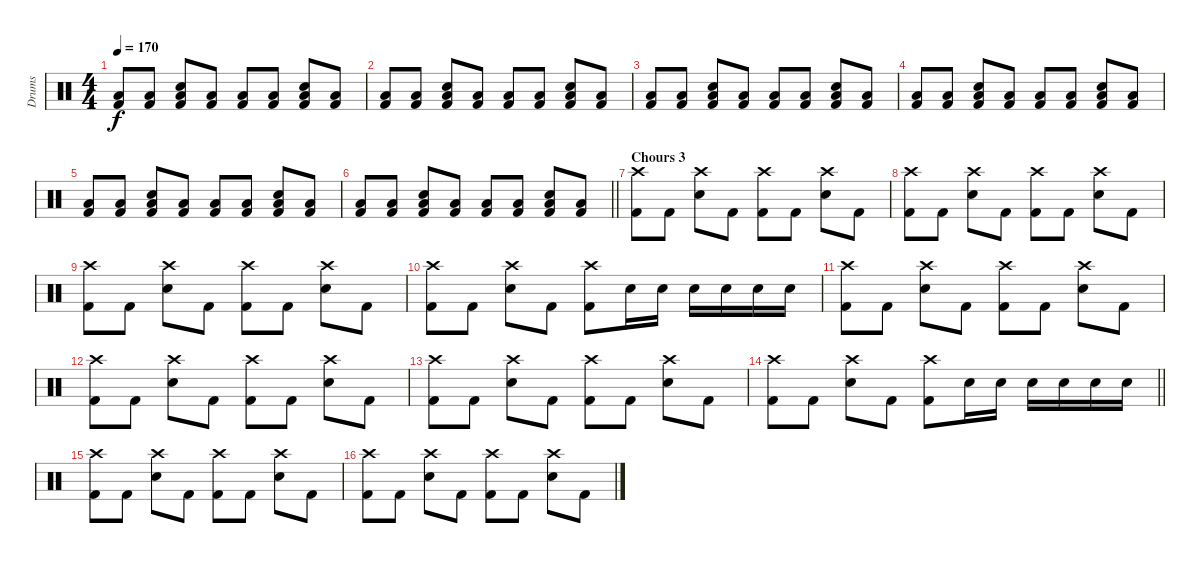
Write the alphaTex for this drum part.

\track ("Drums" "Drums") {instrument percussion}
\staff {score}
\articulation defaults
\ts (4 4)
\tempo 170
\clef neutral
\ks c
("Low Floor Tom (hit)" "Kick (hit) 2").8{dy f} ("Low Floor Tom (hit)" "Kick (hit) 2").8 ("Low Floor Tom (hit)" "Snare (hit) 2" "Kick (hit) 2").8 ("Low Floor Tom (hit)" "Kick (hit) 2").8 ("Low Floor Tom (hit)" "Kick (hit) 2").8 ("Low Floor Tom (hit)" "Kick (hit) 2").8 ("Low Floor Tom (hit)" "Snare (hit) 2" "Kick (hit) 2").8 ("Low Floor Tom (hit)" "Kick (hit) 2").8 |
("Low Floor Tom (hit)" "Kick (hit) 2").8 ("Low Floor Tom (hit)" "Kick (hit) 2").8 ("Low Floor Tom (hit)" "Snare (hit) 2" "Kick (hit) 2").8 ("Low Floor Tom (hit)" "Kick (hit) 2").8 ("Low Floor Tom (hit)" "Kick (hit) 2").8 ("Low Floor Tom (hit)" "Kick (hit) 2").8 ("Low Floor Tom (hit)" "Snare (hit) 2" "Kick (hit) 2").8 ("Low Floor Tom (hit)" "Kick (hit) 2").8 |
("Low Floor Tom (hit)" "Kick (hit) 2").8 ("Low Floor Tom (hit)" "Kick (hit) 2").8 ("Low Floor Tom (hit)" "Snare (hit) 2" "Kick (hit) 2").8 ("Low Floor Tom (hit)" "Kick (hit) 2").8 ("Low Floor Tom (hit)" "Kick (hit) 2").8 ("Low Floor Tom (hit)" "Kick (hit) 2").8 ("Low Floor Tom (hit)" "Snare (hit) 2" "Kick (hit) 2").8 ("Low Floor Tom (hit)" "Kick (hit) 2").8 |
("Low Floor Tom (hit)" "Kick (hit) 2").8 ("Low Floor Tom (hit)" "Kick (hit) 2").8 ("Low Floor Tom (hit)" "Snare (hit) 2" "Kick (hit) 2").8 ("Low Floor Tom (hit)" "Kick (hit) 2").8 ("Low Floor Tom (hit)" "Kick (hit) 2").8 ("Low Floor Tom (hit)" "Kick (hit) 2").8 ("Low Floor Tom (hit)" "Snare (hit) 2" "Kick (hit) 2").8 ("Low Floor Tom (hit)" "Kick (hit) 2").8 |
("Low Floor Tom (hit)" "Kick (hit) 2").8 ("Low Floor Tom (hit)" "Kick (hit) 2").8 ("Low Floor Tom (hit)" "Snare (hit) 2" "Kick (hit) 2").8 ("Low Floor Tom (hit)" "Kick (hit) 2").8 ("Low Floor Tom (hit)" "Kick (hit) 2").8 ("Low Floor Tom (hit)" "Kick (hit) 2").8 ("Low Floor Tom (hit)" "Snare (hit) 2" "Kick (hit) 2").8 ("Low Floor Tom (hit)" "Kick (hit) 2").8 |
\barLineRight lightlight
("Low Floor Tom (hit)" "Kick (hit) 2").8 ("Low Floor Tom (hit)" "Kick (hit) 2").8 ("Low Floor Tom (hit)" "Snare (hit) 2" "Kick (hit) 2").8 ("Low Floor Tom (hit)" "Kick (hit) 2").8 ("Low Floor Tom (hit)" "Kick (hit) 2").8 ("Low Floor Tom (hit)" "Kick (hit) 2").8 ("Low Floor Tom (hit)" "Snare (hit) 2" "Kick (hit) 2").8 ("Low Floor Tom (hit)" "Kick (hit) 2").8 |
\section ("" "Chours 3")
("Crash high (hit)" "Kick (hit) 2").8 "Kick (hit) 2".8 ("Crash high (hit)" "Snare (hit) 2").8 "Kick (hit) 2".8 ("Crash high (hit)" "Kick (hit) 2").8 "Kick (hit) 2".8 ("Crash high (hit)" "Snare (hit) 2").8 "Kick (hit) 2".8 |
("Crash high (hit)" "Kick (hit) 2").8 "Kick (hit) 2".8 ("Crash high (hit)" "Snare (hit) 2").8 "Kick (hit) 2".8 ("Crash high (hit)" "Kick (hit) 2").8 "Kick (hit) 2".8 ("Crash high (hit)" "Snare (hit) 2").8 "Kick (hit) 2".8 |
("Crash high (hit)" "Kick (hit) 2").8 "Kick (hit) 2".8 ("Crash high (hit)" "Snare (hit) 2").8 "Kick (hit) 2".8 ("Crash high (hit)" "Kick (hit) 2").8 "Kick (hit) 2".8 ("Crash high (hit)" "Snare (hit) 2").8 "Kick (hit) 2".8 |
("Crash high (hit)" "Kick (hit) 2").8 "Kick (hit) 2".8 ("Crash high (hit)" "Snare (hit) 2").8 "Kick (hit) 2".8 ("Crash high (hit)" "Kick (hit) 2").8 "Snare (hit) 2".16 "Snare (hit) 2".16 "Snare (hit) 2".16 "Snare (hit) 2".16 "Snare (hit) 2".16 "Snare (hit) 2".16 |
("Crash high (hit)" "Kick (hit) 2").8 "Kick (hit) 2".8 ("Crash high (hit)" "Snare (hit) 2").8 "Kick (hit) 2".8 ("Crash high (hit)" "Kick (hit) 2").8 "Kick (hit) 2".8 ("Crash high (hit)" "Snare (hit) 2").8 "Kick (hit) 2".8 |
("Crash high (hit)" "Kick (hit) 2").8 "Kick (hit) 2".8 ("Crash high (hit)" "Snare (hit) 2").8 "Kick (hit) 2".8 ("Crash high (hit)" "Kick (hit) 2").8 "Kick (hit) 2".8 ("Crash high (hit)" "Snare (hit) 2").8 "Kick (hit) 2".8 |
("Crash high (hit)" "Kick (hit) 2").8 "Kick (hit) 2".8 ("Crash high (hit)" "Snare (hit) 2").8 "Kick (hit) 2".8 ("Crash high (hit)" "Kick (hit) 2").8 "Kick (hit) 2".8 ("Crash high (hit)" "Snare (hit) 2").8 "Kick (hit) 2".8 |
\barLineRight lightlight
("Crash high (hit)" "Kick (hit) 2").8 "Kick (hit) 2".8 ("Crash high (hit)" "Snare (hit) 2").8 "Kick (hit) 2".8 ("Crash high (hit)" "Kick (hit) 2").8 "Snare (hit) 2".16 "Snare (hit) 2".16 "Snare (hit) 2".16 "Snare (hit) 2".16 "Snare (hit) 2".16 "Snare (hit) 2".16 |
("Crash high (hit)" "Kick (hit) 2").8 "Kick (hit) 2".8 ("Crash high (hit)" "Snare (hit) 2").8 "Kick (hit) 2".8 ("Crash high (hit)" "Kick (hit) 2").8 "Kick (hit) 2".8 ("Crash high (hit)" "Snare (hit) 2").8 "Kick (hit) 2".8 |
("Crash high (hit)" "Kick (hit) 2").8 "Kick (hit) 2".8 ("Crash high (hit)" "Snare (hit) 2").8 "Kick (hit) 2".8 ("Crash high (hit)" "Kick (hit) 2").8 "Kick (hit) 2".8 ("Crash high (hit)" "Snare (hit) 2").8 "Kick (hit) 2".8
